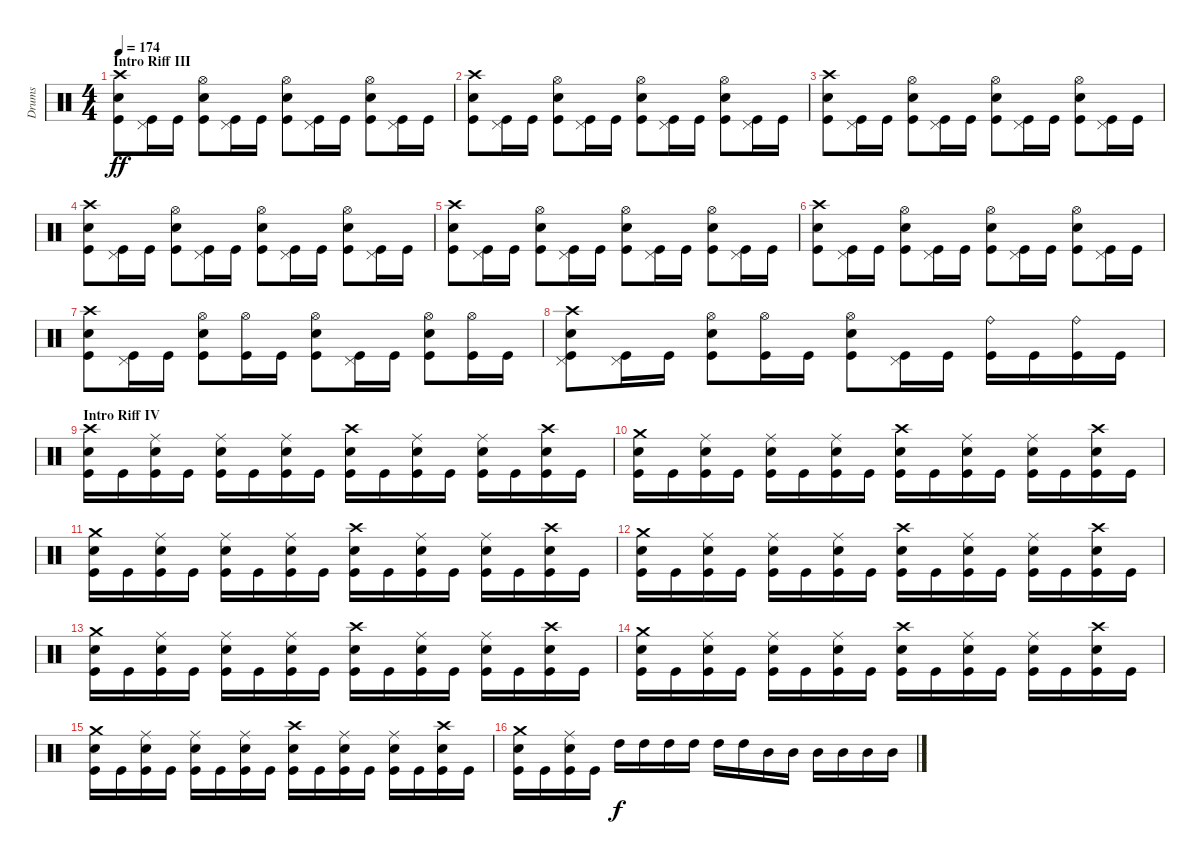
\track ("Drums" "Drums") {instrument percussion}
\staff {score}
\articulation defaults
\ts (4 4)
\section ("" "Intro Riff III")
\tempo 174
\clef neutral
\ks c
("Crash high (hit)" "Electric Snare (hit)" "Kick (hit)").8{dy ff} ("Pedal Hi-Hat (hit)" "Kick (hit)").16 "Kick (hit)".16 ("Hi-Hat (open)" "Electric Snare (hit)" "Kick (hit)").8 ("Pedal Hi-Hat (hit)" "Kick (hit)").16 "Kick (hit)".16 ("Hi-Hat (open)" "Electric Snare (hit)" "Kick (hit)").8 ("Pedal Hi-Hat (hit)" "Kick (hit)").16 "Kick (hit)".16 ("Hi-Hat (open)" "Electric Snare (hit)" "Kick (hit)").8 ("Pedal Hi-Hat (hit)" "Kick (hit)").16 "Kick (hit)".16 |
("Crash high (hit)" "Electric Snare (hit)" "Kick (hit)").8 ("Pedal Hi-Hat (hit)" "Kick (hit)").16 "Kick (hit)".16 ("Hi-Hat (open)" "Electric Snare (hit)" "Kick (hit)").8 ("Pedal Hi-Hat (hit)" "Kick (hit)").16 "Kick (hit)".16 ("Hi-Hat (open)" "Electric Snare (hit)" "Kick (hit)").8 ("Pedal Hi-Hat (hit)" "Kick (hit)").16 "Kick (hit)".16 ("Hi-Hat (open)" "Electric Snare (hit)" "Kick (hit)").8 ("Pedal Hi-Hat (hit)" "Kick (hit)").16 "Kick (hit)".16 |
("Crash high (hit)" "Electric Snare (hit)" "Kick (hit)").8 ("Pedal Hi-Hat (hit)" "Kick (hit)").16 "Kick (hit)".16 ("Hi-Hat (open)" "Electric Snare (hit)" "Kick (hit)").8 ("Pedal Hi-Hat (hit)" "Kick (hit)").16 "Kick (hit)".16 ("Hi-Hat (open)" "Electric Snare (hit)" "Kick (hit)").8 ("Pedal Hi-Hat (hit)" "Kick (hit)").16 "Kick (hit)".16 ("Hi-Hat (open)" "Electric Snare (hit)" "Kick (hit)").8 ("Pedal Hi-Hat (hit)" "Kick (hit)").16 "Kick (hit)".16 |
("Crash high (hit)" "Electric Snare (hit)" "Kick (hit)").8 ("Pedal Hi-Hat (hit)" "Kick (hit)").16 "Kick (hit)".16 ("Hi-Hat (open)" "Electric Snare (hit)" "Kick (hit)").8 ("Pedal Hi-Hat (hit)" "Kick (hit)").16 "Kick (hit)".16 ("Hi-Hat (open)" "Electric Snare (hit)" "Kick (hit)").8 ("Pedal Hi-Hat (hit)" "Kick (hit)").16 "Kick (hit)".16 ("Hi-Hat (open)" "Electric Snare (hit)" "Kick (hit)").8 ("Pedal Hi-Hat (hit)" "Kick (hit)").16 "Kick (hit)".16 |
("Crash high (hit)" "Electric Snare (hit)" "Kick (hit)").8 ("Pedal Hi-Hat (hit)" "Kick (hit)").16 "Kick (hit)".16 ("Hi-Hat (open)" "Electric Snare (hit)" "Kick (hit)").8 ("Pedal Hi-Hat (hit)" "Kick (hit)").16 "Kick (hit)".16 ("Hi-Hat (open)" "Electric Snare (hit)" "Kick (hit)").8 ("Pedal Hi-Hat (hit)" "Kick (hit)").16 "Kick (hit)".16 ("Hi-Hat (open)" "Electric Snare (hit)" "Kick (hit)").8 ("Pedal Hi-Hat (hit)" "Kick (hit)").16 "Kick (hit)".16 |
("Crash high (hit)" "Electric Snare (hit)" "Kick (hit)").8 ("Pedal Hi-Hat (hit)" "Kick (hit)").16 "Kick (hit)".16 ("Hi-Hat (open)" "Electric Snare (hit)" "Kick (hit)").8 ("Pedal Hi-Hat (hit)" "Kick (hit)").16 "Kick (hit)".16 ("Hi-Hat (open)" "Electric Snare (hit)" "Kick (hit)").8 ("Pedal Hi-Hat (hit)" "Kick (hit)").16 "Kick (hit)".16 ("Hi-Hat (open)" "Electric Snare (hit)" "Kick (hit)").8 ("Pedal Hi-Hat (hit)" "Kick (hit)").16 "Kick (hit)".16 |
("Crash high (hit)" "Electric Snare (hit)" "Kick (hit)").8 ("Pedal Hi-Hat (hit)" "Kick (hit)").16 "Kick (hit)".16 ("Hi-Hat (open)" "Electric Snare (hit)" "Kick (hit)").8 ("Hi-Hat (open)" "Kick (hit)").16 "Kick (hit)".16 ("Hi-Hat (open)" "Electric Snare (hit)" "Kick (hit)").8 ("Pedal Hi-Hat (hit)" "Kick (hit)").16 "Kick (hit)".16 ("Hi-Hat (open)" "Electric Snare (hit)" "Kick (hit)").8 ("Hi-Hat (open)" "Kick (hit)").16 "Kick (hit)".16 |
("Pedal Hi-Hat (hit)" "Crash high (hit)" "Electric Snare (hit)" "Kick (hit)").8 ("Pedal Hi-Hat (hit)" "Kick (hit)").16 "Kick (hit)".16 ("Hi-Hat (open)" "Electric Snare (hit)" "Kick (hit)").8 ("Hi-Hat (open)" "Kick (hit)").16 "Kick (hit)".16 ("Hi-Hat (open)" "Electric Snare (hit)" "Kick (hit)").8 ("Pedal Hi-Hat (hit)" "Kick (hit)").16 "Kick (hit)".16 ("Ride (bell)" "Kick (hit)").16 "Kick (hit)".16 ("Ride (bell)" "Kick (hit)").16 "Kick (hit)".16 |
\section ("" "Intro Riff IV")
("Crash high (hit)" "Electric Snare (hit)" "Kick (hit)").16 "Kick (hit)".16 ("Ride (middle)" "Electric Snare (hit)" "Kick (hit)").16 "Kick (hit)".16 ("Ride (middle)" "Electric Snare (hit)" "Kick (hit)").16 "Kick (hit)".16 ("Ride (middle)" "Electric Snare (hit)" "Kick (hit)").16 "Kick (hit)".16 ("Crash high (hit)" "Electric Snare (hit)" "Kick (hit)").16 "Kick (hit)".16 ("Ride (middle)" "Electric Snare (hit)" "Kick (hit)").16 "Kick (hit)".16 ("Ride (middle)" "Electric Snare (hit)" "Kick (hit)").16 "Kick (hit)".16 ("Crash high (hit)" "Electric Snare (hit)" "Kick (hit)").16 "Kick (hit)".16 |
("Crash medium (hit)" "Electric Snare (hit)" "Kick (hit)").16 "Kick (hit)".16 ("Ride (middle)" "Electric Snare (hit)" "Kick (hit)").16 "Kick (hit)".16 ("Ride (middle)" "Electric Snare (hit)" "Kick (hit)").16 "Kick (hit)".16 ("Ride (middle)" "Electric Snare (hit)" "Kick (hit)").16 "Kick (hit)".16 ("Crash high (hit)" "Electric Snare (hit)" "Kick (hit)").16 "Kick (hit)".16 ("Ride (middle)" "Electric Snare (hit)" "Kick (hit)").16 "Kick (hit)".16 ("Ride (middle)" "Electric Snare (hit)" "Kick (hit)").16 "Kick (hit)".16 ("Crash high (hit)" "Electric Snare (hit)" "Kick (hit)").16 "Kick (hit)".16 |
("Crash medium (hit)" "Electric Snare (hit)" "Kick (hit)").16 "Kick (hit)".16 ("Ride (middle)" "Electric Snare (hit)" "Kick (hit)").16 "Kick (hit)".16 ("Ride (middle)" "Electric Snare (hit)" "Kick (hit)").16 "Kick (hit)".16 ("Ride (middle)" "Electric Snare (hit)" "Kick (hit)").16 "Kick (hit)".16 ("Crash high (hit)" "Electric Snare (hit)" "Kick (hit)").16 "Kick (hit)".16 ("Ride (middle)" "Electric Snare (hit)" "Kick (hit)").16 "Kick (hit)".16 ("Ride (middle)" "Electric Snare (hit)" "Kick (hit)").16 "Kick (hit)".16 ("Crash high (hit)" "Electric Snare (hit)" "Kick (hit)").16 "Kick (hit)".16 |
("Crash medium (hit)" "Electric Snare (hit)" "Kick (hit)").16 "Kick (hit)".16 ("Ride (middle)" "Electric Snare (hit)" "Kick (hit)").16 "Kick (hit)".16 ("Ride (middle)" "Electric Snare (hit)" "Kick (hit)").16 "Kick (hit)".16 ("Ride (middle)" "Electric Snare (hit)" "Kick (hit)").16 "Kick (hit)".16 ("Crash high (hit)" "Electric Snare (hit)" "Kick (hit)").16 "Kick (hit)".16 ("Ride (middle)" "Electric Snare (hit)" "Kick (hit)").16 "Kick (hit)".16 ("Ride (middle)" "Electric Snare (hit)" "Kick (hit)").16 "Kick (hit)".16 ("Crash high (hit)" "Electric Snare (hit)" "Kick (hit)").16 "Kick (hit)".16 |
("Crash medium (hit)" "Electric Snare (hit)" "Kick (hit)").16 "Kick (hit)".16 ("Ride (middle)" "Electric Snare (hit)" "Kick (hit)").16 "Kick (hit)".16 ("Ride (middle)" "Electric Snare (hit)" "Kick (hit)").16 "Kick (hit)".16 ("Ride (middle)" "Electric Snare (hit)" "Kick (hit)").16 "Kick (hit)".16 ("Crash high (hit)" "Electric Snare (hit)" "Kick (hit)").16 "Kick (hit)".16 ("Ride (middle)" "Electric Snare (hit)" "Kick (hit)").16 "Kick (hit)".16 ("Ride (middle)" "Electric Snare (hit)" "Kick (hit)").16 "Kick (hit)".16 ("Crash high (hit)" "Electric Snare (hit)" "Kick (hit)").16 "Kick (hit)".16 |
("Crash medium (hit)" "Electric Snare (hit)" "Kick (hit)").16 "Kick (hit)".16 ("Ride (middle)" "Electric Snare (hit)" "Kick (hit)").16 "Kick (hit)".16 ("Ride (middle)" "Electric Snare (hit)" "Kick (hit)").16 "Kick (hit)".16 ("Ride (middle)" "Electric Snare (hit)" "Kick (hit)").16 "Kick (hit)".16 ("Crash high (hit)" "Electric Snare (hit)" "Kick (hit)").16 "Kick (hit)".16 ("Ride (middle)" "Electric Snare (hit)" "Kick (hit)").16 "Kick (hit)".16 ("Ride (middle)" "Electric Snare (hit)" "Kick (hit)").16 "Kick (hit)".16 ("Crash high (hit)" "Electric Snare (hit)" "Kick (hit)").16 "Kick (hit)".16 |
("Crash medium (hit)" "Electric Snare (hit)" "Kick (hit)").16 "Kick (hit)".16 ("Ride (middle)" "Electric Snare (hit)" "Kick (hit)").16 "Kick (hit)".16 ("Ride (middle)" "Electric Snare (hit)" "Kick (hit)").16 "Kick (hit)".16 ("Ride (middle)" "Electric Snare (hit)" "Kick (hit)").16 "Kick (hit)".16 ("Crash high (hit)" "Electric Snare (hit)" "Kick (hit)").16 "Kick (hit)".16 ("Ride (middle)" "Electric Snare (hit)" "Kick (hit)").16 "Kick (hit)".16 ("Ride (middle)" "Electric Snare (hit)" "Kick (hit)").16 "Kick (hit)".16 ("Crash high (hit)" "Electric Snare (hit)" "Kick (hit)").16 "Kick (hit)".16 |
("Crash medium (hit)" "Electric Snare (hit)" "Kick (hit)").16 "Kick (hit)".16 ("Ride (middle)" "Electric Snare (hit)" "Kick (hit)").16 "Kick (hit)".16 "High Tom (hit)".16{dy f} "High Tom (hit)".16 "High Tom (hit)".16 "High Tom (hit)".16 "High Tom (hit)".16 "High Tom (hit)".16 "Mid Tom (hit)".16 "Mid Tom (hit)".16 "Mid Tom (hit)".16 "Mid Tom (hit)".16 "Mid Tom (hit)".16 "Mid Tom (hit)".16
